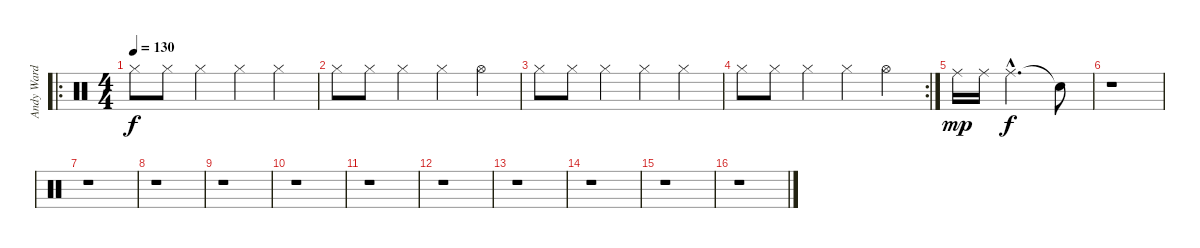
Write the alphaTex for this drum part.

\track ("Andy Ward" "Andy Ward") {instrument percussion}
\staff {score}
\articulation defaults
\ro
\ts (4 4)
\tempo 130
\clef neutral
\ks c "Hi-Hat (closed)".8{dy f} "Hi-Hat (closed)".8 "Hi-Hat (closed)".4 "Hi-Hat (closed)".4 "Hi-Hat (closed)".4
|
"Hi-Hat (closed)".8 "Hi-Hat (closed)".8 "Hi-Hat (closed)".4 "Hi-Hat (closed)".4 "Hi-Hat (open)".4 |
"Hi-Hat (closed)".8 "Hi-Hat (closed)".8 "Hi-Hat (closed)".4 "Hi-Hat (closed)".4 "Hi-Hat (closed)".4 |
\rc 2 "Hi-Hat (closed)".8 "Hi-Hat (closed)".8 "Hi-Hat (closed)".4 "Hi-Hat (closed)".4 "Hi-Hat (open)".4
|
"Ride (middle)".16{dy mp} "Ride (middle)".16 "Ride (middle)"{hac}.2{d dy f} "Snare (hit)"{t}.8 |
r.1 |
r.1 |
r.1 |
r.1 |
r.1 |
r.1 |
r.1 |
r.1 |
r.1 |
r.1 |
r.1
